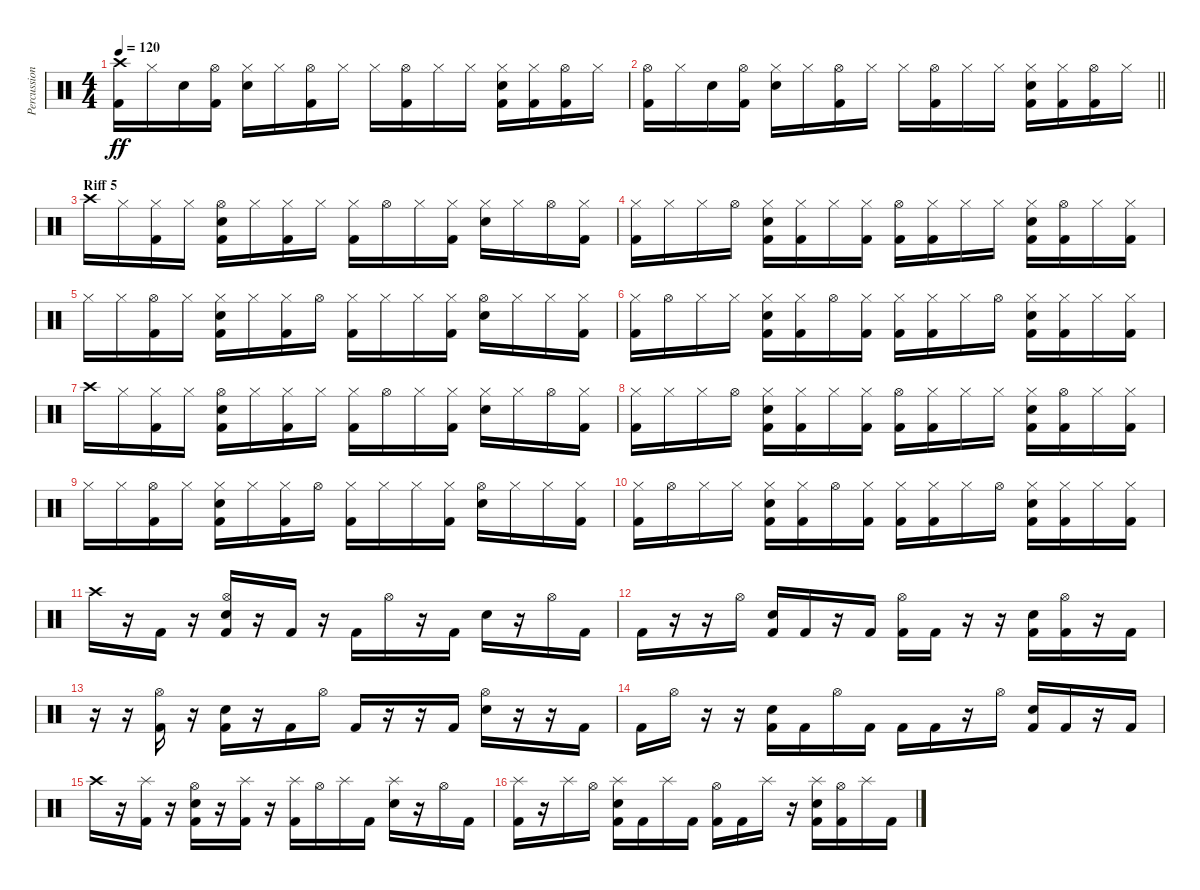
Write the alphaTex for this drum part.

\track ("Percussion" "Percussion") {instrument percussion}
\staff {score}
\articulation defaults
\ts (4 4)
\tempo 120
\clef neutral
\ks c
("Crash high (hit)" "Kick (hit) 2").16{dy ff} "Hi-Hat (closed)".16 "Snare (hit)".16 ("Hi-Hat (open)" "Kick (hit) 2").16 ("Hi-Hat (closed)" "Electric Snare (hit)").16 "Hi-Hat (closed)".16 ("Hi-Hat (open)" "Kick (hit) 2").16 "Hi-Hat (closed)".16 "Hi-Hat (closed)".16 ("Hi-Hat (open)" "Kick (hit) 2").16 "Hi-Hat (closed)".16 "Hi-Hat (closed)".16 ("Hi-Hat (closed)" "Electric Snare (hit)" "Kick (hit) 2").16 ("Hi-Hat (closed)" "Kick (hit) 2").16 ("Hi-Hat (open)" "Kick (hit) 2").16 "Hi-Hat (closed)".16 |
\barLineRight lightlight
("Hi-Hat (open)" "Kick (hit) 2").16 "Hi-Hat (closed)".16 "Snare (hit)".16 ("Hi-Hat (open)" "Kick (hit) 2").16 ("Hi-Hat (closed)" "Electric Snare (hit)").16 "Hi-Hat (closed)".16 ("Hi-Hat (open)" "Kick (hit) 2").16 "Hi-Hat (closed)".16 "Hi-Hat (closed)".16 ("Hi-Hat (open)" "Kick (hit) 2").16 "Hi-Hat (closed)".16 "Hi-Hat (closed)".16 ("Hi-Hat (closed)" "Electric Snare (hit)" "Kick (hit) 2").16 ("Hi-Hat (closed)" "Kick (hit) 2").16 ("Hi-Hat (open)" "Kick (hit) 2").16 "Hi-Hat (closed)".16 |
\section ("" "Riff 5")
"Crash high (hit)".16 "Hi-Hat (closed)".16 ("Hi-Hat (closed)" "Kick (hit) 2").16 "Hi-Hat (closed)".16 ("Hi-Hat (open)" "Electric Snare (hit)" "Kick (hit) 2").16 "Hi-Hat (closed)".16 ("Hi-Hat (closed)" "Kick (hit) 2").16 "Hi-Hat (closed)".16 ("Hi-Hat (closed)" "Kick (hit) 2").16 "Hi-Hat (open)".16 "Hi-Hat (closed)".16 ("Hi-Hat (closed)" "Kick (hit) 2").16 ("Hi-Hat (closed)" "Electric Snare (hit)").16 "Hi-Hat (closed)".16 "Hi-Hat (open)".16 ("Hi-Hat (closed)" "Kick (hit) 2").16 |
("Hi-Hat (closed)" "Kick (hit) 2").16 "Hi-Hat (closed)".16 "Hi-Hat (closed)".16 "Hi-Hat (open)".16 ("Hi-Hat (closed)" "Electric Snare (hit)" "Kick (hit) 2").16 ("Hi-Hat (closed)" "Kick (hit) 2").16 "Hi-Hat (closed)".16 ("Hi-Hat (closed)" "Kick (hit) 2").16 ("Hi-Hat (open)" "Kick (hit) 2").16 ("Hi-Hat (closed)" "Kick (hit) 2").16 "Hi-Hat (closed)".16 "Hi-Hat (closed)".16 ("Hi-Hat (closed)" "Electric Snare (hit)" "Kick (hit) 2").16 ("Hi-Hat (open)" "Kick (hit) 2").16 "Hi-Hat (closed)".16 ("Hi-Hat (closed)" "Kick (hit) 2").16 |
"Hi-Hat (closed)".16 "Hi-Hat (closed)".16 ("Hi-Hat (open)" "Kick (hit) 2").16 "Hi-Hat (closed)".16 ("Hi-Hat (closed)" "Electric Snare (hit)" "Kick (hit) 2").16 "Hi-Hat (closed)".16 ("Hi-Hat (closed)" "Kick (hit) 2").16 "Hi-Hat (open)".16 ("Hi-Hat (closed)" "Kick (hit) 2").16 "Hi-Hat (closed)".16 "Hi-Hat (closed)".16 ("Hi-Hat (closed)" "Kick (hit) 2").16 ("Hi-Hat (open)" "Electric Snare (hit)").16 "Hi-Hat (closed)".16 "Hi-Hat (closed)".16 ("Hi-Hat (closed)" "Kick (hit) 2").16 |
("Hi-Hat (closed)" "Kick (hit) 2").16 "Hi-Hat (open)".16 "Hi-Hat (closed)".16 "Hi-Hat (closed)".16 ("Hi-Hat (closed)" "Electric Snare (hit)" "Kick (hit) 2").16 ("Hi-Hat (closed)" "Kick (hit) 2").16 "Hi-Hat (open)".16 ("Hi-Hat (closed)" "Kick (hit) 2").16 ("Hi-Hat (closed)" "Kick (hit) 2").16 ("Hi-Hat (closed)" "Kick (hit) 2").16 "Hi-Hat (closed)".16 "Hi-Hat (open)".16 ("Hi-Hat (closed)" "Electric Snare (hit)" "Kick (hit) 2").16 ("Hi-Hat (closed)" "Kick (hit) 2").16 "Hi-Hat (closed)".16 ("Hi-Hat (closed)" "Kick (hit) 2").16 |
"Crash high (hit)".16 "Hi-Hat (closed)".16 ("Hi-Hat (closed)" "Kick (hit) 2").16 "Hi-Hat (closed)".16 ("Hi-Hat (open)" "Electric Snare (hit)" "Kick (hit) 2").16 "Hi-Hat (closed)".16 ("Hi-Hat (closed)" "Kick (hit) 2").16 "Hi-Hat (closed)".16 ("Hi-Hat (closed)" "Kick (hit) 2").16 "Hi-Hat (open)".16 "Hi-Hat (closed)".16 ("Hi-Hat (closed)" "Kick (hit) 2").16 ("Hi-Hat (closed)" "Electric Snare (hit)").16 "Hi-Hat (closed)".16 "Hi-Hat (open)".16 ("Hi-Hat (closed)" "Kick (hit) 2").16 |
("Hi-Hat (closed)" "Kick (hit) 2").16 "Hi-Hat (closed)".16 "Hi-Hat (closed)".16 "Hi-Hat (open)".16 ("Hi-Hat (closed)" "Electric Snare (hit)" "Kick (hit) 2").16 ("Hi-Hat (closed)" "Kick (hit) 2").16 "Hi-Hat (closed)".16 ("Hi-Hat (closed)" "Kick (hit) 2").16 ("Hi-Hat (open)" "Kick (hit) 2").16 ("Hi-Hat (closed)" "Kick (hit) 2").16 "Hi-Hat (closed)".16 "Hi-Hat (closed)".16 ("Hi-Hat (closed)" "Electric Snare (hit)" "Kick (hit) 2").16 ("Hi-Hat (open)" "Kick (hit) 2").16 "Hi-Hat (closed)".16 ("Hi-Hat (closed)" "Kick (hit) 2").16 |
"Hi-Hat (closed)".16 "Hi-Hat (closed)".16 ("Hi-Hat (open)" "Kick (hit) 2").16 "Hi-Hat (closed)".16 ("Hi-Hat (closed)" "Electric Snare (hit)" "Kick (hit) 2").16 "Hi-Hat (closed)".16 ("Hi-Hat (closed)" "Kick (hit) 2").16 "Hi-Hat (open)".16 ("Hi-Hat (closed)" "Kick (hit) 2").16 "Hi-Hat (closed)".16 "Hi-Hat (closed)".16 ("Hi-Hat (closed)" "Kick (hit) 2").16 ("Hi-Hat (open)" "Electric Snare (hit)").16 "Hi-Hat (closed)".16 "Hi-Hat (closed)".16 ("Hi-Hat (closed)" "Kick (hit) 2").16 |
("Hi-Hat (closed)" "Kick (hit) 2").16 "Hi-Hat (open)".16 "Hi-Hat (closed)".16 "Hi-Hat (closed)".16 ("Hi-Hat (closed)" "Electric Snare (hit)" "Kick (hit) 2").16 ("Hi-Hat (closed)" "Kick (hit) 2").16 "Hi-Hat (open)".16 ("Hi-Hat (closed)" "Kick (hit) 2").16 ("Hi-Hat (closed)" "Kick (hit) 2").16 ("Hi-Hat (closed)" "Kick (hit) 2").16 "Hi-Hat (closed)".16 "Hi-Hat (open)".16 ("Hi-Hat (closed)" "Electric Snare (hit)" "Kick (hit) 2").16 ("Hi-Hat (closed)" "Kick (hit) 2").16 "Hi-Hat (closed)".16 ("Hi-Hat (closed)" "Kick (hit) 2").16 |
"Crash high (hit)".16 r.16 "Kick (hit) 2".16 r.16 ("Hi-Hat (open)" "Electric Snare (hit)" "Kick (hit) 2").16 r.16 "Kick (hit) 2".16 r.16 "Kick (hit) 2".16 "Hi-Hat (open)".16 r.16 "Kick (hit) 2".16 "Electric Snare (hit)".16 r.16 "Hi-Hat (open)".16 "Kick (hit) 2".16 |
"Kick (hit) 2".16 r.16 r.16 "Hi-Hat (open)".16 ("Electric Snare (hit)" "Kick (hit) 2").16 "Kick (hit) 2".16 r.16 "Kick (hit) 2".16 ("Hi-Hat (open)" "Kick (hit) 2").16 "Kick (hit) 2".16 r.16 r.16 ("Electric Snare (hit)" "Kick (hit) 2").16 ("Hi-Hat (open)" "Kick (hit) 2").16 r.16 "Kick (hit) 2".16 |
r.16 r.16 ("Hi-Hat (open)" "Kick (hit) 2").16 r.16 ("Electric Snare (hit)" "Kick (hit) 2").16 r.16 "Kick (hit) 2".16 "Hi-Hat (open)".16 "Kick (hit) 2".16 r.16 r.16 "Kick (hit) 2".16 ("Hi-Hat (open)" "Electric Snare (hit)").16 r.16 r.16 "Kick (hit) 2".16 |
"Kick (hit) 2".16 "Hi-Hat (open)".16 r.16 r.16 ("Electric Snare (hit)" "Kick (hit) 2").16 "Kick (hit) 2".16 "Hi-Hat (open)".16 "Kick (hit) 2".16 "Kick (hit) 2".16 "Kick (hit) 2".16 r.16 "Hi-Hat (open)".16 ("Electric Snare (hit)" "Kick (hit) 2").16 "Kick (hit) 2".16 r.16 "Kick (hit) 2".16 |
"Crash high (hit)".16 r.16 ("Splash (hit)" "Kick (hit) 2").16 r.16 ("Hi-Hat (open)" "Electric Snare (hit)" "Kick (hit) 2").16 r.16 ("Splash (hit)" "Kick (hit) 2").16 r.16 ("Splash (hit)" "Kick (hit) 2").16 "Hi-Hat (open)".16 "Splash (hit)".16 "Kick (hit) 2".16 ("Splash (hit)" "Electric Snare (hit)").16 r.16 "Hi-Hat (open)".16 "Kick (hit) 2".16 |
("Splash (hit)" "Kick (hit) 2").16 r.16 "Splash (hit)".16 "Hi-Hat (open)".16 ("Splash (hit)" "Electric Snare (hit)" "Kick (hit) 2").16 "Kick (hit) 2".16 "Splash (hit)".16 "Kick (hit) 2".16 ("Hi-Hat (open)" "Kick (hit) 2").16 "Kick (hit) 2".16 "Splash (hit)".16 r.16 ("Splash (hit)" "Electric Snare (hit)" "Kick (hit) 2").16 ("Hi-Hat (open)" "Kick (hit) 2").16 "Splash (hit)".16 "Kick (hit) 2".16
